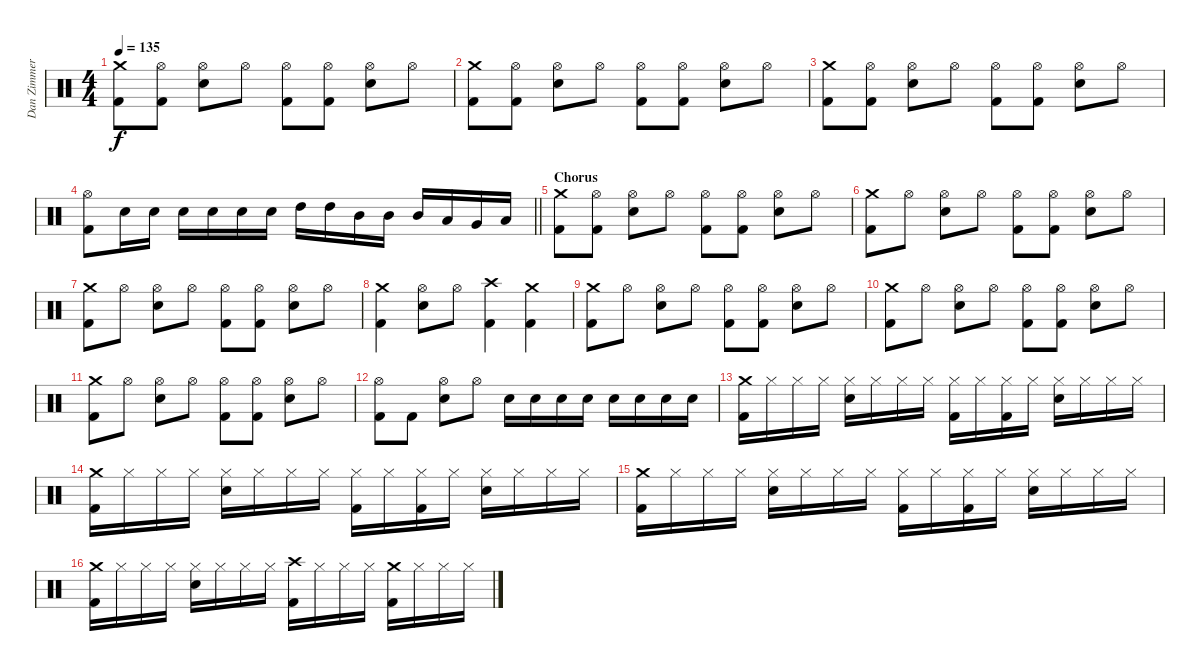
\track ("Dan Zimmermann" "Dan Zimmer") {instrument percussion}
\staff {score}
\articulation defaults
\ts (4 4)
\tempo 135
\clef neutral
\ks c
("Crash medium (hit)" "Kick (hit) 2").8{dy f} ("Hi-Hat (open)" "Kick (hit) 2").8 ("Hi-Hat (open)" "Electric Snare (hit)").8 "Hi-Hat (open)".8 ("Hi-Hat (open)" "Kick (hit) 2").8 ("Hi-Hat (open)" "Kick (hit) 2").8 ("Hi-Hat (open)" "Electric Snare (hit)").8 "Hi-Hat (open)".8 |
("Crash medium (hit)" "Kick (hit) 2").8 ("Hi-Hat (open)" "Kick (hit) 2").8 ("Hi-Hat (open)" "Electric Snare (hit)").8 "Hi-Hat (open)".8 ("Hi-Hat (open)" "Kick (hit) 2").8 ("Hi-Hat (open)" "Kick (hit) 2").8 ("Hi-Hat (open)" "Electric Snare (hit)").8 "Hi-Hat (open)".8 |
("Crash medium (hit)" "Kick (hit) 2").8 ("Hi-Hat (open)" "Kick (hit) 2").8 ("Hi-Hat (open)" "Electric Snare (hit)").8 "Hi-Hat (open)".8 ("Hi-Hat (open)" "Kick (hit) 2").8 ("Hi-Hat (open)" "Kick (hit) 2").8 ("Hi-Hat (open)" "Electric Snare (hit)").8 "Hi-Hat (open)".8 |
\barLineRight lightlight
("Hi-Hat (open)" "Kick (hit) 2").8 "Electric Snare (hit)".16 "Electric Snare (hit)".16 "Electric Snare (hit)".16 "Electric Snare (hit)".16 "Electric Snare (hit)".16 "Electric Snare (hit)".16 "High Tom (hit)".16 "High Tom (hit)".16 "Mid Tom (hit)".16 "Mid Tom (hit)".16 "Mid Tom (hit)".16 "Low Tom (hit)".16 "Very Low Tom (hit)".16 "Low Floor Tom (hit)".16 |
\section ("" "Chorus")
("Crash medium (hit)" "Kick (hit) 2").8 ("Hi-Hat (open)" "Kick (hit) 2").8 ("Hi-Hat (open)" "Electric Snare (hit)").8 "Hi-Hat (open)".8 ("Hi-Hat (open)" "Kick (hit) 2").8 ("Hi-Hat (open)" "Kick (hit) 2").8 ("Hi-Hat (open)" "Electric Snare (hit)").8 "Hi-Hat (open)".8 |
("Crash medium (hit)" "Kick (hit) 2").8 "Hi-Hat (open)".8 ("Hi-Hat (open)" "Electric Snare (hit)").8 "Hi-Hat (open)".8 ("Hi-Hat (open)" "Kick (hit) 2").8 ("Hi-Hat (open)" "Kick (hit) 2").8 ("Hi-Hat (open)" "Electric Snare (hit)").8 "Hi-Hat (open)".8 |
("Crash medium (hit)" "Kick (hit) 2").8 "Hi-Hat (open)".8 ("Hi-Hat (open)" "Electric Snare (hit)").8 "Hi-Hat (open)".8 ("Hi-Hat (open)" "Kick (hit) 2").8 ("Hi-Hat (open)" "Kick (hit) 2").8 ("Hi-Hat (open)" "Electric Snare (hit)").8 "Hi-Hat (open)".8 |
("Crash medium (hit)" "Kick (hit) 2").4 ("Hi-Hat (open)" "Electric Snare (hit)").8 "Hi-Hat (open)".8 ("Crash high (hit)" "Kick (hit) 2").4 ("Crash medium (hit)" "Kick (hit) 2").4 |
("Crash medium (hit)" "Kick (hit) 2").8 "Hi-Hat (open)".8 ("Hi-Hat (open)" "Electric Snare (hit)").8 "Hi-Hat (open)".8 ("Hi-Hat (open)" "Kick (hit) 2").8 ("Hi-Hat (open)" "Kick (hit) 2").8 ("Hi-Hat (open)" "Electric Snare (hit)").8 "Hi-Hat (open)".8 |
("Crash medium (hit)" "Kick (hit) 2").8 "Hi-Hat (open)".8 ("Hi-Hat (open)" "Electric Snare (hit)").8 "Hi-Hat (open)".8 ("Hi-Hat (open)" "Kick (hit) 2").8 ("Hi-Hat (open)" "Kick (hit) 2").8 ("Hi-Hat (open)" "Electric Snare (hit)").8 "Hi-Hat (open)".8 |
("Crash medium (hit)" "Kick (hit) 2").8 "Hi-Hat (open)".8 ("Hi-Hat (open)" "Electric Snare (hit)").8 "Hi-Hat (open)".8 ("Hi-Hat (open)" "Kick (hit) 2").8 ("Hi-Hat (open)" "Kick (hit) 2").8 ("Hi-Hat (open)" "Electric Snare (hit)").8 "Hi-Hat (open)".8 |
("Hi-Hat (open)" "Kick (hit) 2").8 "Kick (hit) 2".8 ("Hi-Hat (open)" "Electric Snare (hit)").8 "Hi-Hat (open)".8 "Electric Snare (hit)".16 "Electric Snare (hit)".16 "Electric Snare (hit)".16 "Electric Snare (hit)".16 "Electric Snare (hit)".16 "Electric Snare (hit)".16 "Electric Snare (hit)".16 "Electric Snare (hit)".16 |
("Crash medium (hit)" "Kick (hit) 2").16 "Hi-Hat (closed)".16 "Hi-Hat (closed)".16 "Hi-Hat (closed)".16 ("Hi-Hat (closed)" "Electric Snare (hit)").16 "Hi-Hat (closed)".16 "Hi-Hat (closed)".16 "Hi-Hat (closed)".16 ("Hi-Hat (closed)" "Kick (hit) 2").16 "Hi-Hat (closed)".16 ("Hi-Hat (closed)" "Kick (hit) 2").16 "Hi-Hat (closed)".16 ("Hi-Hat (closed)" "Electric Snare (hit)").16 "Hi-Hat (closed)".16 "Hi-Hat (closed)".16 "Hi-Hat (closed)".16 |
("Crash medium (hit)" "Kick (hit) 2").16 "Hi-Hat (closed)".16 "Hi-Hat (closed)".16 "Hi-Hat (closed)".16 ("Hi-Hat (closed)" "Electric Snare (hit)").16 "Hi-Hat (closed)".16 "Hi-Hat (closed)".16 "Hi-Hat (closed)".16 ("Hi-Hat (closed)" "Kick (hit) 2").16 "Hi-Hat (closed)".16 ("Hi-Hat (closed)" "Kick (hit) 2").16 "Hi-Hat (closed)".16 ("Hi-Hat (closed)" "Electric Snare (hit)").16 "Hi-Hat (closed)".16 "Hi-Hat (closed)".16 "Hi-Hat (closed)".16 |
("Crash medium (hit)" "Kick (hit) 2").16 "Hi-Hat (closed)".16 "Hi-Hat (closed)".16 "Hi-Hat (closed)".16 ("Hi-Hat (closed)" "Electric Snare (hit)").16 "Hi-Hat (closed)".16 "Hi-Hat (closed)".16 "Hi-Hat (closed)".16 ("Hi-Hat (closed)" "Kick (hit) 2").16 "Hi-Hat (closed)".16 ("Hi-Hat (closed)" "Kick (hit) 2").16 "Hi-Hat (closed)".16 ("Hi-Hat (closed)" "Electric Snare (hit)").16 "Hi-Hat (closed)".16 "Hi-Hat (closed)".16 "Hi-Hat (closed)".16 |
("Crash medium (hit)" "Kick (hit) 2").16 "Hi-Hat (closed)".16 "Hi-Hat (closed)".16 "Hi-Hat (closed)".16 ("Hi-Hat (closed)" "Electric Snare (hit)").16 "Hi-Hat (closed)".16 "Hi-Hat (closed)".16 "Hi-Hat (closed)".16 ("Crash high (hit)" "Kick (hit) 2").16 "Hi-Hat (closed)".16 "Hi-Hat (closed)".16 "Hi-Hat (closed)".16 ("Crash medium (hit)" "Kick (hit) 2").16 "Hi-Hat (closed)".16 "Hi-Hat (closed)".16 "Hi-Hat (closed)".16
